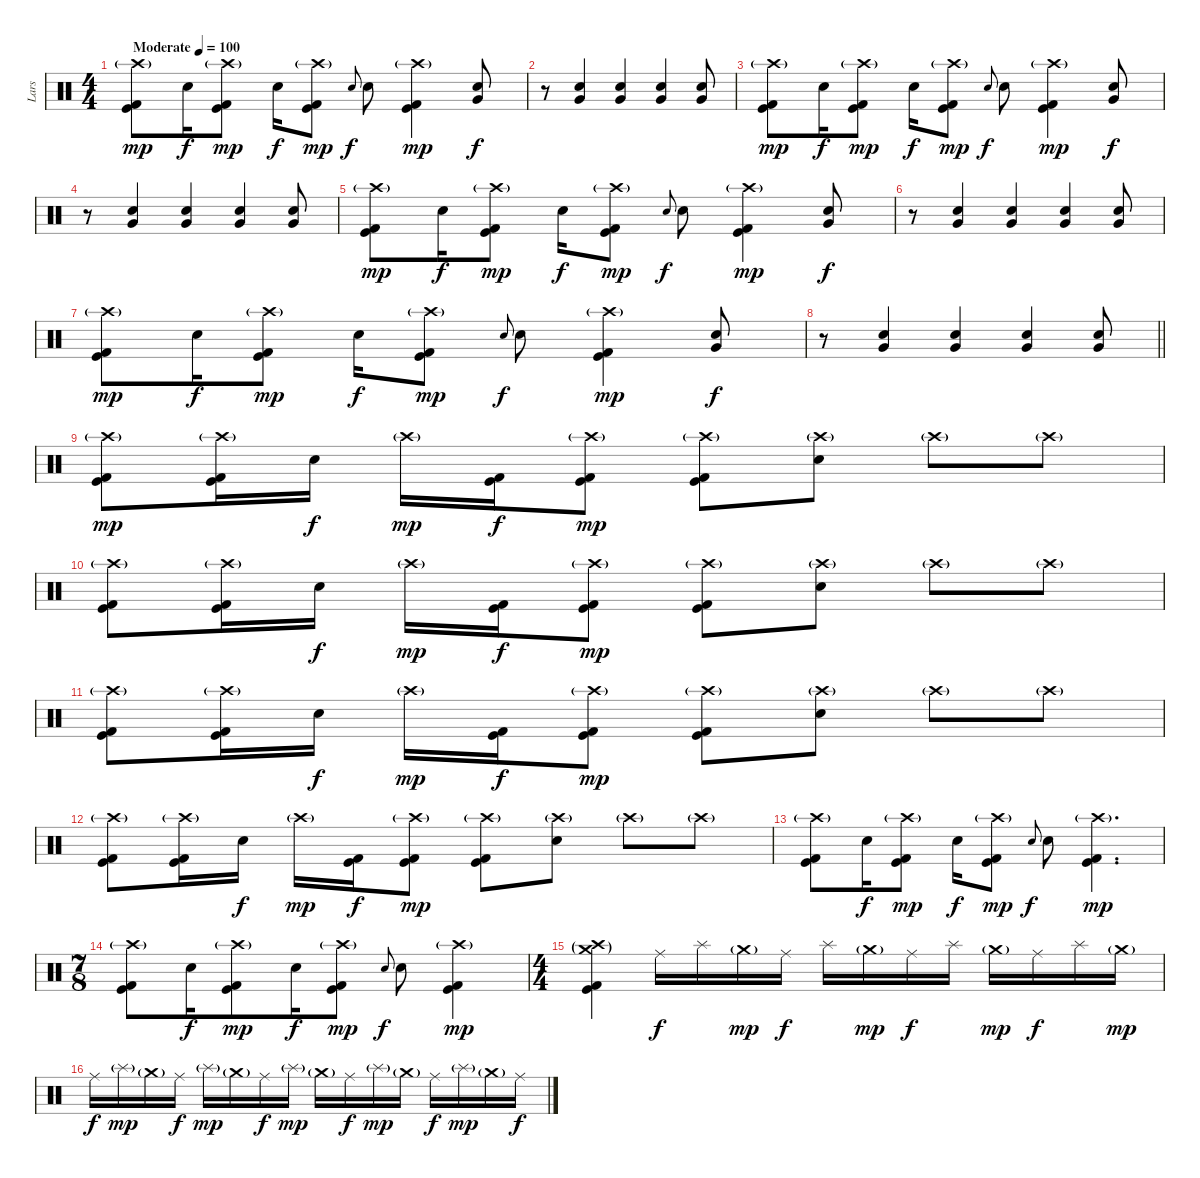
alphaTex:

\track ("Lars" "Lars") {instrument percussion}
\staff {score}
\articulation defaults
\ts (4 4)
\tempo (100 "Moderate")
\clef neutral
\ks c
("Crash high (hit)"{g} "Kick (hit)" "Kick (hit) 2").8{dy mp} "Electric Snare (hit)".16{dy f} ("Crash high (hit)"{g} "Kick (hit)" "Kick (hit) 2").8{dy mp} "Electric Snare (hit)".16{dy f} ("Crash high (hit)"{g} "Kick (hit)" "Kick (hit) 2").8{dy mp} "Electric Snare (hit)".8{gr onbeat dy f} "Electric Snare (hit)".8 ("Crash high (hit)"{g} "Kick (hit)" "Kick (hit) 2").4{dy mp} ("Electric Snare (hit)" "Very Low Tom (hit)").8{dy f} |
r.8 ("Electric Snare (hit)" "Very Low Tom (hit)").4 ("Electric Snare (hit)" "Very Low Tom (hit)").4 ("Electric Snare (hit)" "Very Low Tom (hit)").4 ("Electric Snare (hit)" "Very Low Tom (hit)").8 |
("Crash high (hit)"{g} "Kick (hit)" "Kick (hit) 2").8{dy mp} "Electric Snare (hit)".16{dy f} ("Crash high (hit)"{g} "Kick (hit)" "Kick (hit) 2").8{dy mp} "Electric Snare (hit)".16{dy f} ("Crash high (hit)"{g} "Kick (hit)" "Kick (hit) 2").8{dy mp} "Electric Snare (hit)".8{gr onbeat dy f} "Electric Snare (hit)".8 ("Crash high (hit)"{g} "Kick (hit)" "Kick (hit) 2").4{dy mp} ("Electric Snare (hit)" "Very Low Tom (hit)").8{dy f} |
r.8 ("Electric Snare (hit)" "Very Low Tom (hit)").4 ("Electric Snare (hit)" "Very Low Tom (hit)").4 ("Electric Snare (hit)" "Very Low Tom (hit)").4 ("Electric Snare (hit)" "Very Low Tom (hit)").8 |
("Crash high (hit)"{g} "Kick (hit)" "Kick (hit) 2").8{dy mp} "Electric Snare (hit)".16{dy f} ("Crash high (hit)"{g} "Kick (hit)" "Kick (hit) 2").8{dy mp} "Electric Snare (hit)".16{dy f} ("Crash high (hit)"{g} "Kick (hit)" "Kick (hit) 2").8{dy mp} "Electric Snare (hit)".8{gr onbeat dy f} "Electric Snare (hit)".8 ("Crash high (hit)"{g} "Kick (hit)" "Kick (hit) 2").4{dy mp} ("Electric Snare (hit)" "Very Low Tom (hit)").8{dy f} |
r.8 ("Electric Snare (hit)" "Very Low Tom (hit)").4 ("Electric Snare (hit)" "Very Low Tom (hit)").4 ("Electric Snare (hit)" "Very Low Tom (hit)").4 ("Electric Snare (hit)" "Very Low Tom (hit)").8 |
("Crash high (hit)"{g} "Kick (hit)" "Kick (hit) 2").8{dy mp} "Electric Snare (hit)".16{dy f} ("Crash high (hit)"{g} "Kick (hit)" "Kick (hit) 2").8{dy mp} "Electric Snare (hit)".16{dy f} ("Crash high (hit)"{g} "Kick (hit)" "Kick (hit) 2").8{dy mp} "Electric Snare (hit)".8{gr onbeat dy f} "Electric Snare (hit)".8 ("Crash high (hit)"{g} "Kick (hit)" "Kick (hit) 2").4{dy mp} ("Electric Snare (hit)" "Very Low Tom (hit)").8{dy f} |
\barLineRight lightlight
r.8 ("Electric Snare (hit)" "Very Low Tom (hit)").4 ("Electric Snare (hit)" "Very Low Tom (hit)").4 ("Electric Snare (hit)" "Very Low Tom (hit)").4 ("Electric Snare (hit)" "Very Low Tom (hit)").8 |
\section ("" "")
("Crash high (hit)"{g} "Kick (hit)" "Kick (hit) 2").8{dy mp} ("Crash high (hit)"{g} "Kick (hit)" "Kick (hit) 2").16 "Electric Snare (hit)".16{dy f} "Crash high (hit)"{g}.16{dy mp} ("Kick (hit)" "Kick (hit) 2").16{dy f} ("Crash high (hit)"{g} "Kick (hit)" "Kick (hit) 2").8{dy mp} ("Crash high (hit)"{g} "Kick (hit)" "Kick (hit) 2").8 ("Crash high (hit)"{g} "Electric Snare (hit)").8 "Crash high (hit)"{g}.8 "Crash high (hit)"{g}.8 |
("Crash high (hit)"{g} "Kick (hit)" "Kick (hit) 2").8 ("Crash high (hit)"{g} "Kick (hit)" "Kick (hit) 2").16 "Electric Snare (hit)".16{dy f} "Crash high (hit)"{g}.16{dy mp} ("Kick (hit)" "Kick (hit) 2").16{dy f} ("Crash high (hit)"{g} "Kick (hit)" "Kick (hit) 2").8{dy mp} ("Crash high (hit)"{g} "Kick (hit)" "Kick (hit) 2").8 ("Crash high (hit)"{g} "Electric Snare (hit)").8 "Crash high (hit)"{g}.8 "Crash high (hit)"{g}.8 |
("Crash high (hit)"{g} "Kick (hit)" "Kick (hit) 2").8 ("Crash high (hit)"{g} "Kick (hit)" "Kick (hit) 2").16 "Electric Snare (hit)".16{dy f} "Crash high (hit)"{g}.16{dy mp} ("Kick (hit)" "Kick (hit) 2").16{dy f} ("Crash high (hit)"{g} "Kick (hit)" "Kick (hit) 2").8{dy mp} ("Crash high (hit)"{g} "Kick (hit)" "Kick (hit) 2").8 ("Crash high (hit)"{g} "Electric Snare (hit)").8 "Crash high (hit)"{g}.8 "Crash high (hit)"{g}.8 |
("Crash high (hit)"{g} "Kick (hit)" "Kick (hit) 2").8 ("Crash high (hit)"{g} "Kick (hit)" "Kick (hit) 2").16 "Electric Snare (hit)".16{dy f} "Crash high (hit)"{g}.16{dy mp} ("Kick (hit)" "Kick (hit) 2").16{dy f} ("Crash high (hit)"{g} "Kick (hit)" "Kick (hit) 2").8{dy mp} ("Crash high (hit)"{g} "Kick (hit)" "Kick (hit) 2").8 ("Crash high (hit)"{g} "Electric Snare (hit)").8 "Crash high (hit)"{g}.8 "Crash high (hit)"{g}.8 |
("Crash high (hit)"{g} "Kick (hit)" "Kick (hit) 2").8 "Electric Snare (hit)".16{dy f} ("Crash high (hit)"{g} "Kick (hit)" "Kick (hit) 2").8{dy mp} "Electric Snare (hit)".16{dy f} ("Crash high (hit)"{g} "Kick (hit)" "Kick (hit) 2").8{dy mp} "Electric Snare (hit)".8{gr onbeat dy f} "Electric Snare (hit)".8 ("Crash high (hit)"{g} "Kick (hit)" "Kick (hit) 2").4{d dy mp} |
\ts (7 8)
("Crash high (hit)"{g} "Kick (hit)" "Kick (hit) 2").8 "Electric Snare (hit)".16{dy f} ("Crash high (hit)"{g} "Kick (hit)" "Kick (hit) 2").8{dy mp} "Electric Snare (hit)".16{dy f} ("Crash high (hit)"{g} "Kick (hit)" "Kick (hit) 2").8{dy mp} "Electric Snare (hit)".8{gr onbeat dy f} "Electric Snare (hit)".8 ("Crash high (hit)"{g} "Kick (hit)" "Kick (hit) 2").4{dy mp} |
\ts (4 4)
("Crash medium (hit)"{g} "Crash high (hit)"{g} "Kick (hit)" "Kick (hit) 2").4 "Ride (middle)".16{dy f volume 5} "Splash (hit)".16 "Crash medium (hit)"{g}.16{dy mp} "Ride (middle)".16{dy f} "Splash (hit)".16 "Crash medium (hit)"{g}.16{dy mp} "Ride (middle)".16{dy f} "Splash (hit)".16 "Crash medium (hit)"{g}.16{dy mp} "Ride (middle)".16{dy f} "Splash (hit)".16 "Crash medium (hit)"{g}.16{dy mp} |
"Ride (middle)".16{dy f} "Splash (hit)"{g}.16{dy mp} "Crash medium (hit)"{g}.16 "Ride (middle)".16{dy f} "Splash (hit)"{g}.16{dy mp} "Crash medium (hit)"{g}.16 "Ride (middle)".16{dy f} "Splash (hit)"{g}.16{dy mp} "Crash medium (hit)"{g}.16 "Ride (middle)".16{dy f} "Splash (hit)"{g}.16{dy mp} "Crash medium (hit)"{g}.16 "Ride (middle)".16{dy f} "Splash (hit)"{g}.16{dy mp} "Crash medium (hit)"{g}.16 "Ride (middle)".16{dy f}
